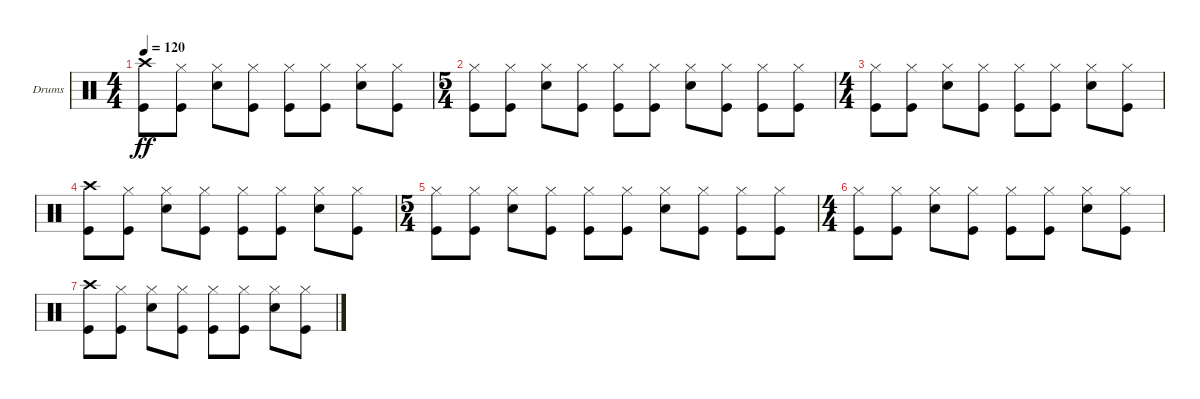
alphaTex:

\defaultSystemsLayout 4
\bracketExtendMode groupsimilarinstruments
\firstSystemTrackNameOrientation horizontal
\otherSystemsTrackNameOrientation horizontal
\track ("Drumkit" "Drums") {instrument percussion}
\staff {score}
\articulation defaults
\ts (4 4)
\tempo 120
\clef neutral
\ks c
("Kick (hit)" "Crash high (hit)").8{dy ff} ("Kick (hit)" "Hi-Hat (closed)").8 ("Snare (hit) 2" "Hi-Hat (closed)").8 ("Kick (hit)" "Hi-Hat (closed)").8 ("Kick (hit)" "Hi-Hat (closed)").8 ("Kick (hit)" "Hi-Hat (closed)").8 ("Snare (hit) 2" "Hi-Hat (closed)").8 ("Kick (hit)" "Hi-Hat (closed)").8 |
\ts (5 4)
("Kick (hit)" "Hi-Hat (closed)").8 ("Kick (hit)" "Hi-Hat (closed)").8 ("Snare (hit) 2" "Hi-Hat (closed)").8 ("Kick (hit)" "Hi-Hat (closed)").8 ("Kick (hit)" "Hi-Hat (closed)").8 ("Kick (hit)" "Hi-Hat (closed)").8 ("Snare (hit) 2" "Hi-Hat (closed)").8 ("Kick (hit)" "Hi-Hat (closed)").8 ("Kick (hit)" "Hi-Hat (closed)").8 ("Kick (hit)" "Hi-Hat (closed)").8 |
\ts (4 4)
("Kick (hit)" "Hi-Hat (closed)").8 ("Kick (hit)" "Hi-Hat (closed)").8 ("Snare (hit) 2" "Hi-Hat (closed)").8 ("Kick (hit)" "Hi-Hat (closed)").8 ("Kick (hit)" "Hi-Hat (closed)").8 ("Kick (hit)" "Hi-Hat (closed)").8 ("Snare (hit) 2" "Hi-Hat (closed)").8 ("Kick (hit)" "Hi-Hat (closed)").8 |
("Kick (hit)" "Crash high (hit)").8 ("Kick (hit)" "Hi-Hat (closed)").8 ("Snare (hit) 2" "Hi-Hat (closed)").8 ("Kick (hit)" "Hi-Hat (closed)").8 ("Kick (hit)" "Hi-Hat (closed)").8 ("Kick (hit)" "Hi-Hat (closed)").8 ("Snare (hit) 2" "Hi-Hat (closed)").8 ("Kick (hit)" "Hi-Hat (closed)").8 |
\ts (5 4)
("Kick (hit)" "Hi-Hat (closed)").8 ("Kick (hit)" "Hi-Hat (closed)").8 ("Snare (hit) 2" "Hi-Hat (closed)").8 ("Kick (hit)" "Hi-Hat (closed)").8 ("Kick (hit)" "Hi-Hat (closed)").8 ("Kick (hit)" "Hi-Hat (closed)").8 ("Snare (hit) 2" "Hi-Hat (closed)").8 ("Kick (hit)" "Hi-Hat (closed)").8 ("Kick (hit)" "Hi-Hat (closed)").8 ("Kick (hit)" "Hi-Hat (closed)").8 |
\ts (4 4)
("Kick (hit)" "Hi-Hat (closed)").8 ("Kick (hit)" "Hi-Hat (closed)").8 ("Snare (hit) 2" "Hi-Hat (closed)").8 ("Kick (hit)" "Hi-Hat (closed)").8 ("Kick (hit)" "Hi-Hat (closed)").8 ("Kick (hit)" "Hi-Hat (closed)").8 ("Snare (hit) 2" "Hi-Hat (closed)").8 ("Kick (hit)" "Hi-Hat (closed)").8 |
("Kick (hit)" "Crash high (hit)").8 ("Kick (hit)" "Hi-Hat (closed)").8 ("Snare (hit) 2" "Hi-Hat (closed)").8 ("Kick (hit)" "Hi-Hat (closed)").8 ("Kick (hit)" "Hi-Hat (closed)").8 ("Kick (hit)" "Hi-Hat (closed)").8 ("Snare (hit) 2" "Hi-Hat (closed)").8 ("Kick (hit)" "Hi-Hat (closed)").8
